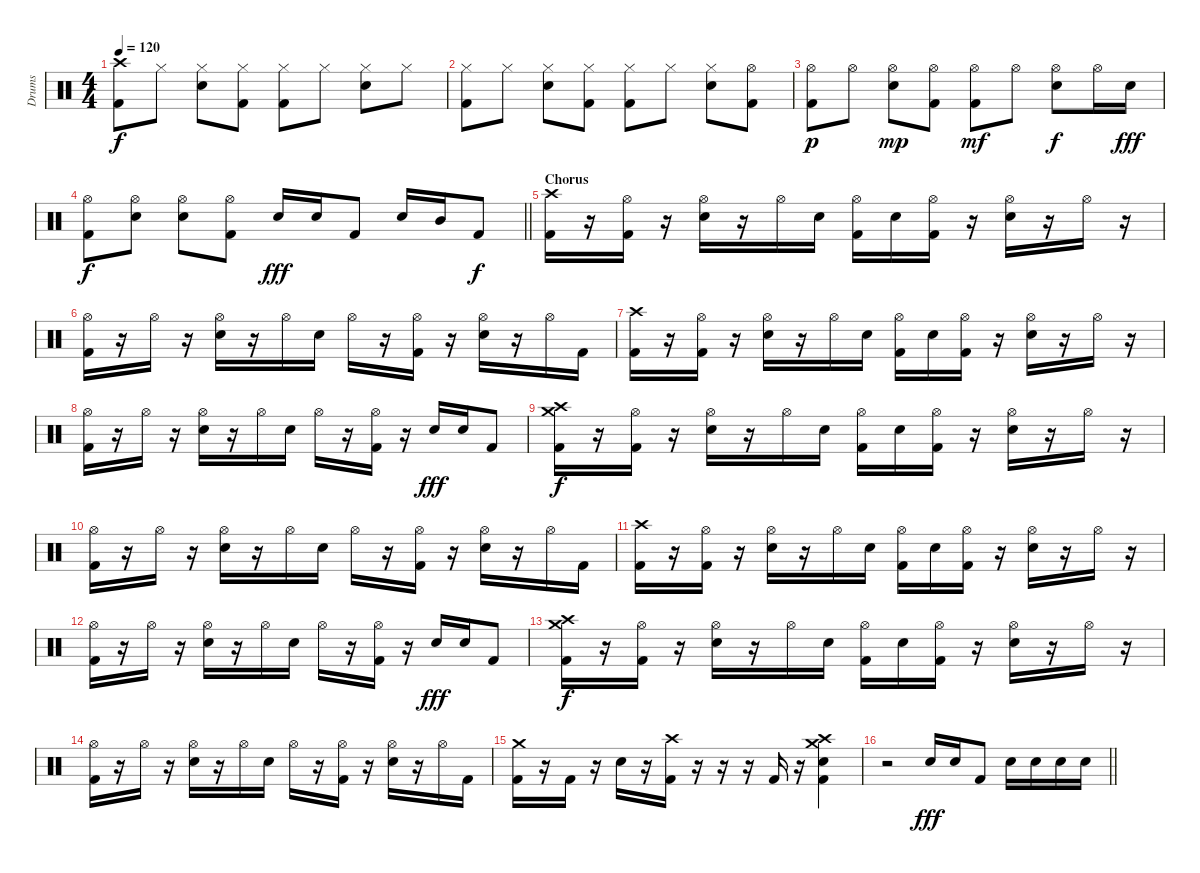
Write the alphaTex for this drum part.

\track ("Drums" "Drums") {instrument percussion}
\staff {score}
\articulation defaults
\ts (4 4)
\tempo 120
\clef neutral
\ks c
("Crash high (hit)" "Kick (hit) 2").8{dy f} "Hi-Hat (closed)".8 ("Hi-Hat (closed)" "Electric Snare (hit)").8 ("Hi-Hat (closed)" "Kick (hit) 2").8 ("Hi-Hat (closed)" "Kick (hit) 2").8 "Hi-Hat (closed)".8 ("Hi-Hat (closed)" "Electric Snare (hit)").8 "Hi-Hat (closed)".8 |
("Hi-Hat (closed)" "Kick (hit) 2").8 "Hi-Hat (closed)".8 ("Hi-Hat (closed)" "Electric Snare (hit)").8 ("Hi-Hat (closed)" "Kick (hit) 2").8 ("Hi-Hat (closed)" "Kick (hit) 2").8 "Hi-Hat (closed)".8 ("Hi-Hat (closed)" "Electric Snare (hit)").8 ("Hi-Hat (open)" "Kick (hit) 2").8 |
("Hi-Hat (open)" "Kick (hit) 2").8{dy p} "Hi-Hat (open)".8 ("Hi-Hat (open)" "Electric Snare (hit)").8{dy mp} ("Hi-Hat (open)" "Kick (hit) 2").8 ("Hi-Hat (open)" "Kick (hit) 2").8{dy mf} "Hi-Hat (open)".8 ("Hi-Hat (open)" "Electric Snare (hit)").8{dy f} "Hi-Hat (open)".16 "Electric Snare (hit)".16{dy fff} |
\barLineRight lightlight
("Hi-Hat (open)" "Kick (hit) 2").8{dy f} ("Hi-Hat (open)" "Electric Snare (hit)").8 ("Hi-Hat (open)" "Electric Snare (hit)").8 ("Hi-Hat (open)" "Kick (hit) 2").8 "Electric Snare (hit)".16{dy fff} "Electric Snare (hit)".16 "Kick (hit) 2".8 "Electric Snare (hit)".16 "Mid Tom (hit)".16 "Kick (hit) 2".8{dy f} |
\section ("" "Chorus")
("Crash high (hit)" "Kick (hit) 2").16 r.16 ("Hi-Hat (open)" "Kick (hit) 2").16 r.16 ("Hi-Hat (open)" "Electric Snare (hit)").16 r.16 "Hi-Hat (open)".16 "Electric Snare (hit)".16 ("Hi-Hat (open)" "Kick (hit) 2").16 "Electric Snare (hit)".16 ("Hi-Hat (open)" "Kick (hit) 2").16 r.16 ("Hi-Hat (open)" "Electric Snare (hit)").16 r.16 "Hi-Hat (open)".16 r.16 |
("Hi-Hat (open)" "Kick (hit) 2").16 r.16 "Hi-Hat (open)".16 r.16 ("Hi-Hat (open)" "Electric Snare (hit)").16 r.16 "Hi-Hat (open)".16 "Electric Snare (hit)".16 "Hi-Hat (open)".16 r.16 ("Hi-Hat (open)" "Kick (hit) 2").16 r.16 ("Hi-Hat (open)" "Electric Snare (hit)").16 r.16 "Hi-Hat (open)".16 "Kick (hit) 2".16 |
("Crash high (hit)" "Kick (hit) 2").16 r.16 ("Hi-Hat (open)" "Kick (hit) 2").16 r.16 ("Hi-Hat (open)" "Electric Snare (hit)").16 r.16 "Hi-Hat (open)".16 "Electric Snare (hit)".16 ("Hi-Hat (open)" "Kick (hit) 2").16 "Electric Snare (hit)".16 ("Hi-Hat (open)" "Kick (hit) 2").16 r.16 ("Hi-Hat (open)" "Electric Snare (hit)").16 r.16 "Hi-Hat (open)".16 r.16 |
("Hi-Hat (open)" "Kick (hit) 2").16 r.16 "Hi-Hat (open)".16 r.16 ("Hi-Hat (open)" "Electric Snare (hit)").16 r.16 "Hi-Hat (open)".16 "Electric Snare (hit)".16 "Hi-Hat (open)".16 r.16 ("Hi-Hat (open)" "Kick (hit) 2").16 r.16 "Electric Snare (hit)".16{dy fff} "Electric Snare (hit)".16 "Kick (hit) 2".8 |
("Crash medium (hit)" "Crash high (hit)" "Kick (hit) 2").16{dy f} r.16 ("Hi-Hat (open)" "Kick (hit) 2").16 r.16 ("Hi-Hat (open)" "Electric Snare (hit)").16 r.16 "Hi-Hat (open)".16 "Electric Snare (hit)".16 ("Hi-Hat (open)" "Kick (hit) 2").16 "Electric Snare (hit)".16 ("Hi-Hat (open)" "Kick (hit) 2").16 r.16 ("Hi-Hat (open)" "Electric Snare (hit)").16 r.16 "Hi-Hat (open)".16 r.16 |
("Hi-Hat (open)" "Kick (hit) 2").16 r.16 "Hi-Hat (open)".16 r.16 ("Hi-Hat (open)" "Electric Snare (hit)").16 r.16 "Hi-Hat (open)".16 "Electric Snare (hit)".16 "Hi-Hat (open)".16 r.16 ("Hi-Hat (open)" "Kick (hit) 2").16 r.16 ("Hi-Hat (open)" "Electric Snare (hit)").16 r.16 "Hi-Hat (open)".16 "Kick (hit) 2".16 |
("Crash high (hit)" "Kick (hit) 2").16 r.16 ("Hi-Hat (open)" "Kick (hit) 2").16 r.16 ("Hi-Hat (open)" "Electric Snare (hit)").16 r.16 "Hi-Hat (open)".16 "Electric Snare (hit)".16 ("Hi-Hat (open)" "Kick (hit) 2").16 "Electric Snare (hit)".16 ("Hi-Hat (open)" "Kick (hit) 2").16 r.16 ("Hi-Hat (open)" "Electric Snare (hit)").16 r.16 "Hi-Hat (open)".16 r.16 |
("Hi-Hat (open)" "Kick (hit) 2").16 r.16 "Hi-Hat (open)".16 r.16 ("Hi-Hat (open)" "Electric Snare (hit)").16 r.16 "Hi-Hat (open)".16 "Electric Snare (hit)".16 "Hi-Hat (open)".16 r.16 ("Hi-Hat (open)" "Kick (hit) 2").16 r.16 "Electric Snare (hit)".16{dy fff} "Electric Snare (hit)".16 "Kick (hit) 2".8 |
("Crash medium (hit)" "Crash high (hit)" "Kick (hit) 2").16{dy f} r.16 ("Hi-Hat (open)" "Kick (hit) 2").16 r.16 ("Hi-Hat (open)" "Electric Snare (hit)").16 r.16 "Hi-Hat (open)".16 "Electric Snare (hit)".16 ("Hi-Hat (open)" "Kick (hit) 2").16 "Electric Snare (hit)".16 ("Hi-Hat (open)" "Kick (hit) 2").16 r.16 ("Hi-Hat (open)" "Electric Snare (hit)").16 r.16 "Hi-Hat (open)".16 r.16 |
("Hi-Hat (open)" "Kick (hit) 2").16 r.16 "Hi-Hat (open)".16 r.16 ("Hi-Hat (open)" "Electric Snare (hit)").16 r.16 "Hi-Hat (open)".16 "Electric Snare (hit)".16 "Hi-Hat (open)".16 r.16 ("Hi-Hat (open)" "Kick (hit) 2").16 r.16 ("Hi-Hat (open)" "Electric Snare (hit)").16 r.16 "Hi-Hat (open)".16 "Kick (hit) 2".16 |
("Crash medium (hit)" "Kick (hit) 2").16 r.16 "Kick (hit) 2".16 r.16 "Electric Snare (hit)".16 r.16 ("Crash high (hit)" "Kick (hit) 2").16 r.16 r.16 r.16 "Kick (hit) 2".16 r.16 ("Crash high (hit)" "Crash medium (hit)" "Electric Snare (hit)" "Kick (hit) 2").4 |
\barLineRight lightlight
r.2 "Electric Snare (hit)".16{dy fff} "Electric Snare (hit)".16 "Kick (hit) 2".8 "Electric Snare (hit)".16 "Electric Snare (hit)".16 "Electric Snare (hit)".16 "Electric Snare (hit)".16
